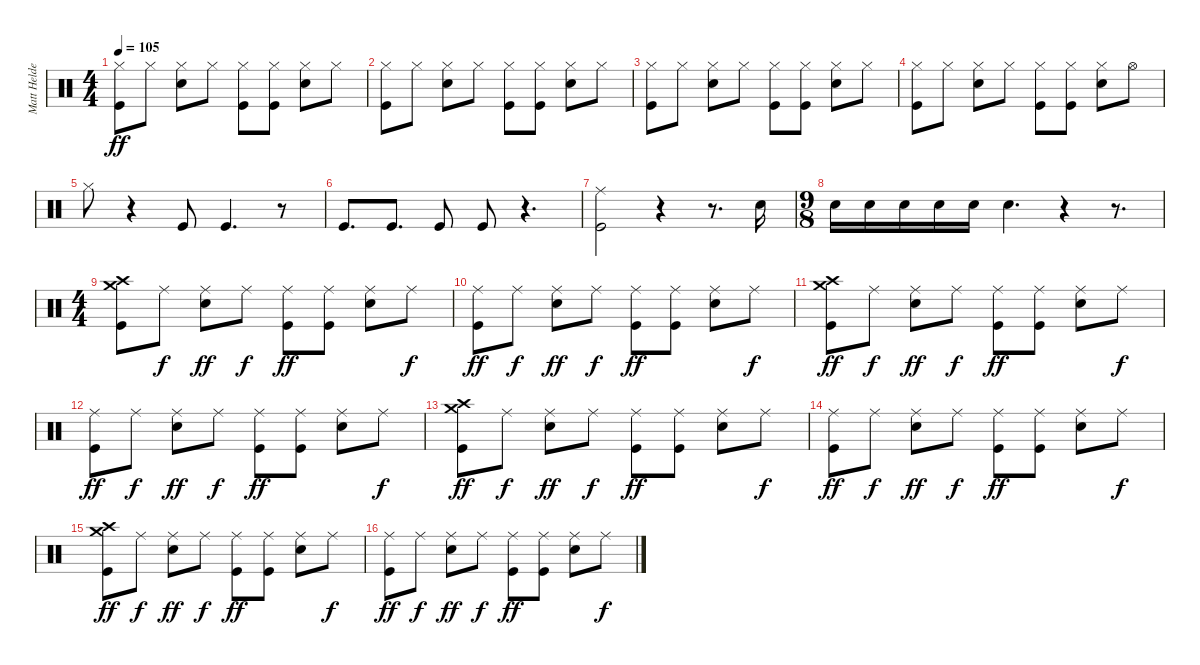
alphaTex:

\track ("Matt Helders" "Matt Helde") {instrument percussion}
\staff {score}
\articulation defaults
\ts (4 4)
\tempo 105
\clef neutral
\ks c
("Hi-Hat (closed)" "Kick (hit)").8{dy ff} "Hi-Hat (closed)".8 ("Hi-Hat (closed)" "Snare (hit) 2").8 "Hi-Hat (closed)".8 ("Hi-Hat (closed)" "Kick (hit)").8 ("Hi-Hat (closed)" "Kick (hit)").8 ("Hi-Hat (closed)" "Snare (hit) 2").8 "Hi-Hat (closed)".8 |
("Hi-Hat (closed)" "Kick (hit)").8 "Hi-Hat (closed)".8 ("Hi-Hat (closed)" "Snare (hit) 2").8 "Hi-Hat (closed)".8 ("Hi-Hat (closed)" "Kick (hit)").8 ("Hi-Hat (closed)" "Kick (hit)").8 ("Hi-Hat (closed)" "Snare (hit) 2").8 "Hi-Hat (closed)".8 |
("Hi-Hat (closed)" "Kick (hit)").8 "Hi-Hat (closed)".8 ("Hi-Hat (closed)" "Snare (hit) 2").8 "Hi-Hat (closed)".8 ("Hi-Hat (closed)" "Kick (hit)").8 ("Hi-Hat (closed)" "Kick (hit)").8 ("Hi-Hat (closed)" "Snare (hit) 2").8 "Hi-Hat (closed)".8 |
("Hi-Hat (closed)" "Kick (hit)").8 "Hi-Hat (closed)".8 ("Hi-Hat (closed)" "Snare (hit) 2").8 "Hi-Hat (closed)".8 ("Hi-Hat (closed)" "Kick (hit)").8 ("Hi-Hat (closed)" "Kick (hit)").8 ("Hi-Hat (closed)" "Snare (hit) 2").8 "Hi-Hat (open)".8 |
"Hi-Hat (closed)".8 r.4 "Kick (hit)".8 "Kick (hit)".4{d} r.8 |
"Kick (hit)".8{d} "Kick (hit)".8{d} "Kick (hit)".8 "Kick (hit)".8 r.4{d} |
("Ride (middle)" "Kick (hit)").2 r.4 r.8{d} "Snare (hit) 2".16 |
\ts (9 8)
"Snare (hit) 2".16 "Snare (hit) 2".16 "Snare (hit) 2".16 "Snare (hit) 2".16 "Snare (hit) 2".16 "Snare (hit) 2".4{d} r.4 r.8{d} |
\ts (4 4)
("Crash high (hit)" "Crash medium (hit)" "Kick (hit)").8 "Ride (middle)".8{dy f} ("Ride (middle)" "Snare (hit) 2").8{dy ff} "Ride (middle)".8{dy f} ("Ride (middle)" "Kick (hit)").8{dy ff} ("Ride (middle)" "Kick (hit)").8 ("Ride (middle)" "Snare (hit) 2").8 "Ride (middle)".8{dy f} |
("Ride (middle)" "Kick (hit)").8{dy ff} "Ride (middle)".8{dy f} ("Ride (middle)" "Snare (hit) 2").8{dy ff} "Ride (middle)".8{dy f} ("Ride (middle)" "Kick (hit)").8{dy ff} ("Ride (middle)" "Kick (hit)").8 ("Ride (middle)" "Snare (hit) 2").8 "Ride (middle)".8{dy f} |
("Crash high (hit)" "Crash medium (hit)" "Kick (hit)").8{dy ff} "Ride (middle)".8{dy f} ("Ride (middle)" "Snare (hit) 2").8{dy ff} "Ride (middle)".8{dy f} ("Ride (middle)" "Kick (hit)").8{dy ff} ("Ride (middle)" "Kick (hit)").8 ("Ride (middle)" "Snare (hit) 2").8 "Ride (middle)".8{dy f} |
("Ride (middle)" "Kick (hit)").8{dy ff} "Ride (middle)".8{dy f} ("Ride (middle)" "Snare (hit) 2").8{dy ff} "Ride (middle)".8{dy f} ("Ride (middle)" "Kick (hit)").8{dy ff} ("Ride (middle)" "Kick (hit)").8 ("Ride (middle)" "Snare (hit) 2").8 "Ride (middle)".8{dy f} |
("Crash high (hit)" "Crash medium (hit)" "Kick (hit)").8{dy ff} "Ride (middle)".8{dy f} ("Ride (middle)" "Snare (hit) 2").8{dy ff} "Ride (middle)".8{dy f} ("Ride (middle)" "Kick (hit)").8{dy ff} ("Ride (middle)" "Kick (hit)").8 ("Ride (middle)" "Snare (hit) 2").8 "Ride (middle)".8{dy f} |
("Ride (middle)" "Kick (hit)").8{dy ff} "Ride (middle)".8{dy f} ("Ride (middle)" "Snare (hit) 2").8{dy ff} "Ride (middle)".8{dy f} ("Ride (middle)" "Kick (hit)").8{dy ff} ("Ride (middle)" "Kick (hit)").8 ("Ride (middle)" "Snare (hit) 2").8 "Ride (middle)".8{dy f} |
("Crash high (hit)" "Crash medium (hit)" "Kick (hit)").8{dy ff} "Ride (middle)".8{dy f} ("Ride (middle)" "Snare (hit) 2").8{dy ff} "Ride (middle)".8{dy f} ("Ride (middle)" "Kick (hit)").8{dy ff} ("Ride (middle)" "Kick (hit)").8 ("Ride (middle)" "Snare (hit) 2").8 "Ride (middle)".8{dy f} |
("Ride (middle)" "Kick (hit)").8{dy ff} "Ride (middle)".8{dy f} ("Ride (middle)" "Snare (hit) 2").8{dy ff} "Ride (middle)".8{dy f} ("Ride (middle)" "Kick (hit)").8{dy ff} ("Ride (middle)" "Kick (hit)").8 ("Ride (middle)" "Snare (hit) 2").8 "Ride (middle)".8{dy f}
